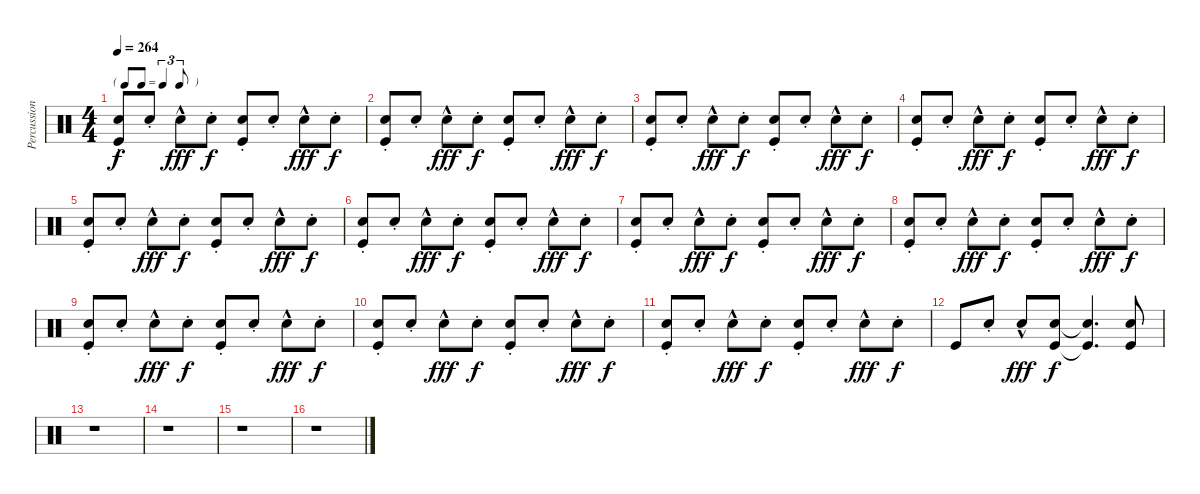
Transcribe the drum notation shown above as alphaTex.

\track ("Percussions" "Percussion") {instrument percussion}
\staff {score}
\articulation defaults
\ts (4 4)
\tf triplet8th
\tempo 264
\clef neutral
\ks c
("Snare (hit) 2"{st} "Kick (hit)").8{dy f} "Snare (hit) 2"{st}.8 "Snare (hit) 2"{hac}.8{dy fff} "Snare (hit) 2"{st}.8{dy f} ("Snare (hit) 2"{st} "Kick (hit)").8 "Snare (hit) 2"{st}.8 "Snare (hit) 2"{hac}.8{dy fff} "Snare (hit) 2"{st}.8{dy f} |
("Snare (hit) 2"{st} "Kick (hit)").8 "Snare (hit) 2"{st}.8 "Snare (hit) 2"{hac}.8{dy fff} "Snare (hit) 2"{st}.8{dy f} ("Snare (hit) 2"{st} "Kick (hit)").8 "Snare (hit) 2"{st}.8 "Snare (hit) 2"{hac}.8{dy fff} "Snare (hit) 2"{st}.8{dy f} |
("Snare (hit) 2"{st} "Kick (hit)").8 "Snare (hit) 2"{st}.8 "Snare (hit) 2"{hac}.8{dy fff} "Snare (hit) 2"{st}.8{dy f} ("Snare (hit) 2"{st} "Kick (hit)").8 "Snare (hit) 2"{st}.8 "Snare (hit) 2"{hac}.8{dy fff} "Snare (hit) 2"{st}.8{dy f} |
("Snare (hit) 2"{st} "Kick (hit)").8 "Snare (hit) 2"{st}.8 "Snare (hit) 2"{hac}.8{dy fff} "Snare (hit) 2"{st}.8{dy f} ("Snare (hit) 2"{st} "Kick (hit)").8 "Snare (hit) 2"{st}.8 "Snare (hit) 2"{hac}.8{dy fff} "Snare (hit) 2"{st}.8{dy f} |
("Snare (hit) 2"{st} "Kick (hit)").8 "Snare (hit) 2"{st}.8 "Snare (hit) 2"{hac}.8{dy fff} "Snare (hit) 2"{st}.8{dy f} ("Snare (hit) 2"{st} "Kick (hit)").8 "Snare (hit) 2"{st}.8 "Snare (hit) 2"{hac}.8{dy fff} "Snare (hit) 2"{st}.8{dy f} |
("Snare (hit) 2"{st} "Kick (hit)").8 "Snare (hit) 2"{st}.8 "Snare (hit) 2"{hac}.8{dy fff} "Snare (hit) 2"{st}.8{dy f} ("Snare (hit) 2"{st} "Kick (hit)").8 "Snare (hit) 2"{st}.8 "Snare (hit) 2"{hac}.8{dy fff} "Snare (hit) 2"{st}.8{dy f} |
("Snare (hit) 2"{st} "Kick (hit)").8 "Snare (hit) 2"{st}.8 "Snare (hit) 2"{hac}.8{dy fff} "Snare (hit) 2"{st}.8{dy f} ("Snare (hit) 2"{st} "Kick (hit)").8 "Snare (hit) 2"{st}.8 "Snare (hit) 2"{hac}.8{dy fff} "Snare (hit) 2"{st}.8{dy f} |
("Snare (hit) 2"{st} "Kick (hit)").8 "Snare (hit) 2"{st}.8 "Snare (hit) 2"{hac}.8{dy fff} "Snare (hit) 2"{st}.8{dy f} ("Snare (hit) 2"{st} "Kick (hit)").8 "Snare (hit) 2"{st}.8 "Snare (hit) 2"{hac}.8{dy fff} "Snare (hit) 2"{st}.8{dy f} |
("Snare (hit) 2"{st} "Kick (hit)").8 "Snare (hit) 2"{st}.8 "Snare (hit) 2"{hac}.8{dy fff} "Snare (hit) 2"{st}.8{dy f} ("Snare (hit) 2"{st} "Kick (hit)").8 "Snare (hit) 2"{st}.8 "Snare (hit) 2"{hac}.8{dy fff} "Snare (hit) 2"{st}.8{dy f} |
("Snare (hit) 2"{st} "Kick (hit)").8 "Snare (hit) 2"{st}.8 "Snare (hit) 2"{hac}.8{dy fff} "Snare (hit) 2"{st}.8{dy f} ("Snare (hit) 2"{st} "Kick (hit)").8 "Snare (hit) 2"{st}.8 "Snare (hit) 2"{hac}.8{dy fff} "Snare (hit) 2"{st}.8{dy f} |
("Snare (hit) 2"{st} "Kick (hit)").8 "Snare (hit) 2"{st}.8 "Snare (hit) 2"{hac}.8{dy fff} "Snare (hit) 2"{st}.8{dy f} ("Snare (hit) 2"{st} "Kick (hit)").8 "Snare (hit) 2"{st}.8 "Snare (hit) 2"{hac}.8{dy fff} "Snare (hit) 2"{st}.8{dy f} |
"Kick (hit)".8 "Snare (hit) 2"{st}.8 "Snare (hit) 2"{hac}.8{dy fff} ("Snare (hit) 2" "Kick (hit)").8{dy f} ("Snare (hit) 2"{t} "Kick (hit)"{t}).4{d} ("Snare (hit) 2" "Kick (hit)").8 |
r.1 |
r.1 |
r.1 |
r.1
